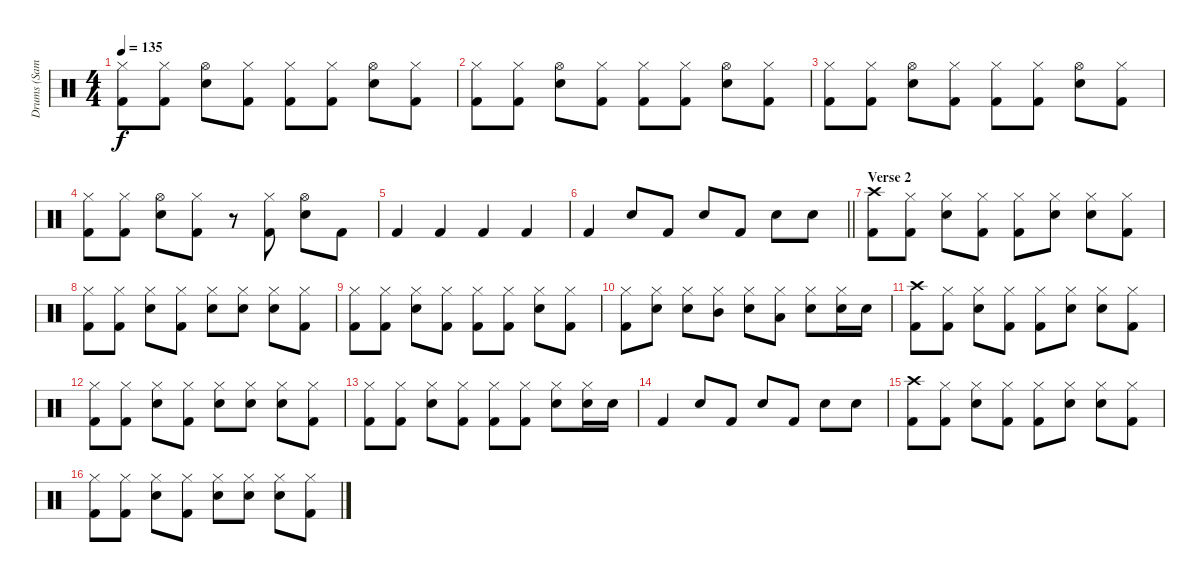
\track ("Drums (Sam Fogarino)" "Drums (Sam") {instrument percussion}
\staff {score}
\articulation defaults
\ts (4 4)
\tempo 135
\clef neutral
\ks c
("Hi-Hat (closed)" "Kick (hit) 2").8{dy f} ("Hi-Hat (closed)" "Kick (hit) 2").8 ("Hi-Hat (open)" "Snare (hit) 2").8 ("Hi-Hat (closed)" "Kick (hit) 2").8 ("Hi-Hat (closed)" "Kick (hit) 2").8 ("Hi-Hat (closed)" "Kick (hit) 2").8 ("Hi-Hat (open)" "Snare (hit) 2").8 ("Hi-Hat (closed)" "Kick (hit) 2").8 |
("Hi-Hat (closed)" "Kick (hit) 2").8 ("Hi-Hat (closed)" "Kick (hit) 2").8 ("Hi-Hat (open)" "Snare (hit) 2").8 ("Hi-Hat (closed)" "Kick (hit) 2").8 ("Hi-Hat (closed)" "Kick (hit) 2").8 ("Hi-Hat (closed)" "Kick (hit) 2").8 ("Hi-Hat (open)" "Snare (hit) 2").8 ("Hi-Hat (closed)" "Kick (hit) 2").8 |
("Hi-Hat (closed)" "Kick (hit) 2").8 ("Hi-Hat (closed)" "Kick (hit) 2").8 ("Hi-Hat (open)" "Snare (hit) 2").8 ("Hi-Hat (closed)" "Kick (hit) 2").8 ("Hi-Hat (closed)" "Kick (hit) 2").8 ("Hi-Hat (closed)" "Kick (hit) 2").8 ("Hi-Hat (open)" "Snare (hit) 2").8 ("Hi-Hat (closed)" "Kick (hit) 2").8 |
("Hi-Hat (closed)" "Kick (hit) 2").8 ("Hi-Hat (closed)" "Kick (hit) 2").8 ("Hi-Hat (open)" "Snare (hit) 2").8 ("Hi-Hat (closed)" "Kick (hit) 2").8 r.8 ("Hi-Hat (closed)" "Kick (hit) 2").8 ("Hi-Hat (open)" "Snare (hit) 2").8 "Kick (hit) 2".8 |
"Kick (hit) 2".4 "Kick (hit) 2".4 "Kick (hit) 2".4 "Kick (hit) 2".4 |
\barLineRight lightlight "Kick (hit) 2".4 "Snare (hit) 2".8 "Kick (hit) 2".8 "Snare (hit) 2".8 "Kick (hit) 2".8 "Snare (hit) 2".8 "Snare (hit) 2".8
|
\section ("" "Verse 2")
("Crash high (hit)" "Kick (hit) 2").8 ("Hi-Hat (closed)" "Kick (hit) 2").8 ("Hi-Hat (closed)" "Snare (hit) 2").8 ("Hi-Hat (closed)" "Kick (hit) 2").8 ("Hi-Hat (closed)" "Kick (hit) 2").8 ("Hi-Hat (closed)" "Snare (hit) 2").8 ("Hi-Hat (closed)" "Snare (hit) 2").8 ("Hi-Hat (closed)" "Kick (hit) 2").8 |
("Hi-Hat (closed)" "Kick (hit) 2").8 ("Hi-Hat (closed)" "Kick (hit) 2").8 ("Hi-Hat (closed)" "Snare (hit) 2").8 ("Hi-Hat (closed)" "Kick (hit) 2").8 ("Hi-Hat (closed)" "Snare (hit) 2").8 ("Hi-Hat (closed)" "Snare (hit) 2").8 ("Hi-Hat (closed)" "Snare (hit) 2").8 ("Hi-Hat (closed)" "Kick (hit) 2").8 |
("Hi-Hat (closed)" "Kick (hit) 2").8 ("Hi-Hat (closed)" "Kick (hit) 2").8 ("Hi-Hat (closed)" "Snare (hit) 2").8 ("Hi-Hat (closed)" "Kick (hit) 2").8 ("Hi-Hat (closed)" "Kick (hit) 2").8 ("Hi-Hat (closed)" "Kick (hit) 2").8 ("Hi-Hat (closed)" "Snare (hit) 2").8 ("Hi-Hat (closed)" "Kick (hit) 2").8 |
("Hi-Hat (closed)" "Kick (hit) 2").8 ("Hi-Hat (closed)" "Snare (hit) 2").8 ("Hi-Hat (closed)" "Snare (hit) 2").8 ("Hi-Hat (closed)" "Mid Tom (hit)").8 ("Hi-Hat (closed)" "Snare (hit) 2").8 ("Hi-Hat (closed)" "Low Tom (hit)").8 ("Hi-Hat (closed)" "Snare (hit) 2").8 ("Hi-Hat (closed)" "Snare (hit) 2").16 "Snare (hit) 2".16 |
("Crash high (hit)" "Kick (hit) 2").8 ("Hi-Hat (closed)" "Kick (hit) 2").8 ("Hi-Hat (closed)" "Snare (hit) 2").8 ("Hi-Hat (closed)" "Kick (hit) 2").8 ("Hi-Hat (closed)" "Kick (hit) 2").8 ("Hi-Hat (closed)" "Snare (hit) 2").8 ("Hi-Hat (closed)" "Snare (hit) 2").8 ("Hi-Hat (closed)" "Kick (hit) 2").8 |
("Hi-Hat (closed)" "Kick (hit) 2").8 ("Hi-Hat (closed)" "Kick (hit) 2").8 ("Hi-Hat (closed)" "Snare (hit) 2").8 ("Hi-Hat (closed)" "Kick (hit) 2").8 ("Hi-Hat (closed)" "Snare (hit) 2").8 ("Hi-Hat (closed)" "Snare (hit) 2").8 ("Hi-Hat (closed)" "Snare (hit) 2").8 ("Hi-Hat (closed)" "Kick (hit) 2").8 |
("Hi-Hat (closed)" "Kick (hit) 2").8 ("Hi-Hat (closed)" "Kick (hit) 2").8 ("Hi-Hat (closed)" "Snare (hit) 2").8 ("Hi-Hat (closed)" "Kick (hit) 2").8 ("Hi-Hat (closed)" "Kick (hit) 2").8 ("Hi-Hat (closed)" "Kick (hit) 2").8 ("Hi-Hat (closed)" "Snare (hit) 2").8 ("Hi-Hat (closed)" "Snare (hit) 2").16 "Snare (hit) 2".16 |
"Kick (hit) 2".4 "Snare (hit) 2".8 "Kick (hit) 2".8 "Snare (hit) 2".8 "Kick (hit) 2".8 "Snare (hit) 2".8 "Snare (hit) 2".8 |
("Crash high (hit)" "Kick (hit) 2").8 ("Hi-Hat (closed)" "Kick (hit) 2").8 ("Hi-Hat (closed)" "Snare (hit) 2").8 ("Hi-Hat (closed)" "Kick (hit) 2").8 ("Hi-Hat (closed)" "Kick (hit) 2").8 ("Hi-Hat (closed)" "Snare (hit) 2").8 ("Hi-Hat (closed)" "Snare (hit) 2").8 ("Hi-Hat (closed)" "Kick (hit) 2").8 |
("Hi-Hat (closed)" "Kick (hit) 2").8 ("Hi-Hat (closed)" "Kick (hit) 2").8 ("Hi-Hat (closed)" "Snare (hit) 2").8 ("Hi-Hat (closed)" "Kick (hit) 2").8 ("Hi-Hat (closed)" "Snare (hit) 2").8 ("Hi-Hat (closed)" "Snare (hit) 2").8 ("Hi-Hat (closed)" "Snare (hit) 2").8 ("Hi-Hat (closed)" "Kick (hit) 2").8
